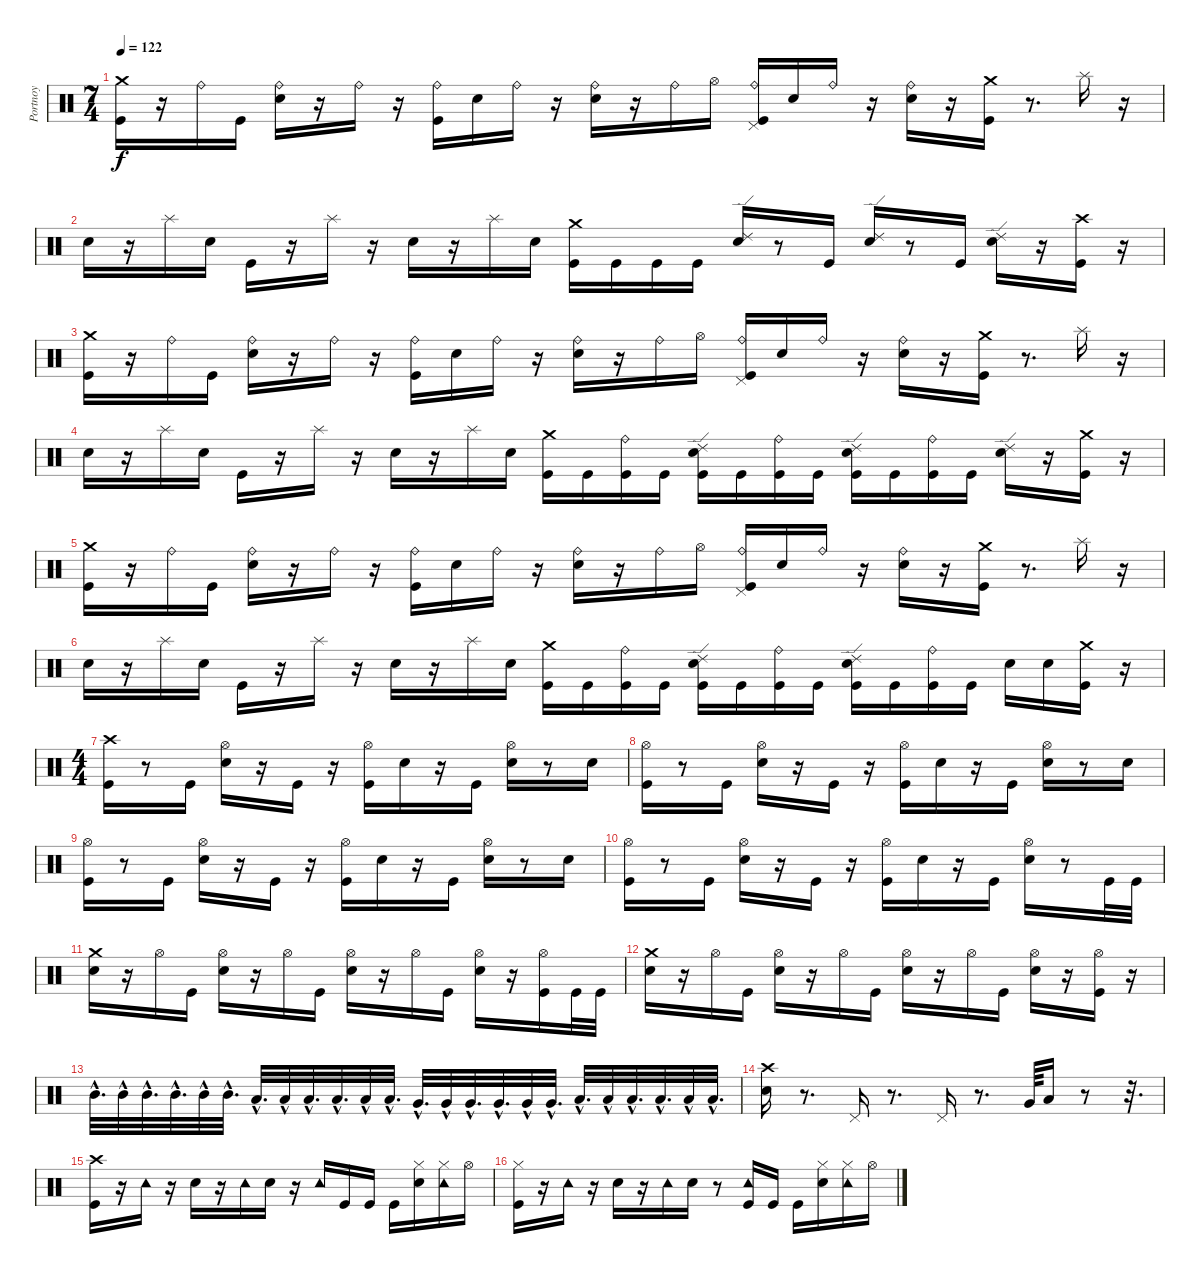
\track ("Portnoy" "Portnoy") {instrument percussion}
\staff {score}
\articulation defaults
\ts (7 4)
\tempo 122
\clef neutral
\ks c
("Crash medium (hit)" "Kick (hit)").16{dy f} r.16 "Ride (bell)".16 "Kick (hit)".16 ("Metronome (bell)" "Ride (bell)").16 r.16 "Ride (bell)".16 r.16 ("Kick (hit)" "Ride (bell)").16 "Metronome (bell)".16 "Ride (bell)".16 r.16 ("Metronome (bell)" "Ride (bell)").16 r.16 "Ride (bell)".16 "Hi-Hat (open)".16 ("Pedal Hi-Hat (hit)" "Kick (hit)" "Ride (bell)").16 "Metronome (bell)".16 "Ride (bell)".16 r.16 ("Metronome (bell)" "Ride (bell)").16 r.16 ("Crash medium (hit)" "Kick (hit)").16 r.8{d} "Splash (hit)".16 r.16 |
"Metronome (bell)".16 r.16 "Splash (hit)".16 "Metronome (bell)".16 "Kick (hit)".16 r.16 "Splash (hit)".16 r.16 "Metronome (bell)".16 r.16 "Splash (hit)".16 "Metronome (bell)".16 ("Crash medium (hit)" "Kick (hit)").16 "Kick (hit)".16 "Kick (hit)".16 "Kick (hit)".16 ("Metronome (bell)" "Ride (edge) 2").16 r.8 "Kick (hit)".16 ("Metronome (bell)" "Ride (edge) 2").16 r.8 "Kick (hit)".16 ("Metronome (bell)" "Ride (edge) 2").16 r.16 ("Crash high (hit)" "Kick (hit)").16 r.16 |
("Crash medium (hit)" "Kick (hit)").16 r.16 "Ride (bell)".16 "Kick (hit)".16 ("Metronome (bell)" "Ride (bell)").16 r.16 "Ride (bell)".16 r.16 ("Kick (hit)" "Ride (bell)").16 "Metronome (bell)".16 "Ride (bell)".16 r.16 ("Metronome (bell)" "Ride (bell)").16 r.16 "Ride (bell)".16 "Hi-Hat (open)".16 ("Pedal Hi-Hat (hit)" "Kick (hit)" "Ride (bell)").16 "Metronome (bell)".16 "Ride (bell)".16 r.16 ("Metronome (bell)" "Ride (bell)").16 r.16 ("Crash medium (hit)" "Kick (hit)").16 r.8{d} "Splash (hit)".16 r.16 |
"Metronome (bell)".16 r.16 "Splash (hit)".16 "Metronome (bell)".16 "Kick (hit)".16 r.16 "Splash (hit)".16 r.16 "Metronome (bell)".16 r.16 "Splash (hit)".16 "Metronome (bell)".16 ("Crash medium (hit)" "Kick (hit)").16 "Kick (hit)".16 ("Ride (bell)" "Kick (hit)").16 "Kick (hit)".16 ("Kick (hit)" "Metronome (bell)" "Ride (edge) 2").16 "Kick (hit)".16 ("Kick (hit)" "Ride (bell)").16 "Kick (hit)".16 ("Kick (hit)" "Metronome (bell)" "Ride (edge) 2").16 "Kick (hit)".16 ("Kick (hit)" "Ride (bell)").16 "Kick (hit)".16 ("Metronome (bell)" "Ride (edge) 2").16 r.16 ("Crash medium (hit)" "Kick (hit)").16 r.16 |
("Crash medium (hit)" "Kick (hit)").16 r.16 "Ride (bell)".16 "Kick (hit)".16 ("Metronome (bell)" "Ride (bell)").16 r.16 "Ride (bell)".16 r.16 ("Kick (hit)" "Ride (bell)").16 "Metronome (bell)".16 "Ride (bell)".16 r.16 ("Metronome (bell)" "Ride (bell)").16 r.16 "Ride (bell)".16 "Hi-Hat (open)".16 ("Pedal Hi-Hat (hit)" "Kick (hit)" "Ride (bell)").16 "Metronome (bell)".16 "Ride (bell)".16 r.16 ("Metronome (bell)" "Ride (bell)").16 r.16 ("Crash medium (hit)" "Kick (hit)").16 r.8{d} "Splash (hit)".16 r.16 |
"Metronome (bell)".16 r.16 "Splash (hit)".16 "Metronome (bell)".16 "Kick (hit)".16 r.16 "Splash (hit)".16 r.16 "Metronome (bell)".16 r.16 "Splash (hit)".16 "Metronome (bell)".16 ("Crash medium (hit)" "Kick (hit)").16 "Kick (hit)".16 ("Ride (bell)" "Kick (hit)").16 "Kick (hit)".16 ("Kick (hit)" "Metronome (bell)" "Ride (edge) 2").16 "Kick (hit)".16 ("Kick (hit)" "Ride (bell)").16 "Kick (hit)".16 ("Kick (hit)" "Metronome (bell)" "Ride (edge) 2").16 "Kick (hit)".16 ("Kick (hit)" "Ride (bell)").16 "Kick (hit)".16 "Metronome (bell)".16 "Metronome (bell)".16 ("Crash medium (hit)" "Kick (hit)").16 r.16 |
\ts (4 4)
("Crash high (hit)" "Kick (hit)").16 r.8 "Kick (hit)".16 ("Hi-Hat (open)" "Metronome (bell)").16 r.16 "Kick (hit)".16 r.16 ("Kick (hit)" "Hi-Hat (open)").16 "Metronome (bell)".16 r.16 "Kick (hit)".16 ("Metronome (bell)" "Hi-Hat (open)").16 r.8 "Metronome (bell)".16 |
("Hi-Hat (open)" "Kick (hit)").16 r.8 "Kick (hit)".16 ("Hi-Hat (open)" "Metronome (bell)").16 r.16 "Kick (hit)".16 r.16 ("Kick (hit)" "Hi-Hat (open)").16 "Metronome (bell)".16 r.16 "Kick (hit)".16 ("Metronome (bell)" "Hi-Hat (open)").16 r.8 "Metronome (bell)".16 |
("Hi-Hat (open)" "Kick (hit)").16 r.8 "Kick (hit)".16 ("Hi-Hat (open)" "Metronome (bell)").16 r.16 "Kick (hit)".16 r.16 ("Kick (hit)" "Hi-Hat (open)").16 "Metronome (bell)".16 r.16 "Kick (hit)".16 ("Metronome (bell)" "Hi-Hat (open)").16 r.8 "Metronome (bell)".16 |
("Hi-Hat (open)" "Kick (hit)").16 r.8 "Kick (hit)".16 ("Hi-Hat (open)" "Metronome (bell)").16 r.16 "Kick (hit)".16 r.16 ("Kick (hit)" "Hi-Hat (open)").16 "Metronome (bell)".16 r.16 "Kick (hit)".16 ("Metronome (bell)" "Hi-Hat (open)").16 r.8 "Kick (hit)".32 "Kick (hit)".32 |
("Crash medium (hit)" "Metronome (bell)").16 r.16 "Hi-Hat (open)".16 "Kick (hit)".16 ("Hi-Hat (open)" "Metronome (bell)").16 r.16 "Hi-Hat (open)".16 "Kick (hit)".16 ("Hi-Hat (open)" "Metronome (bell)").16 r.16 "Hi-Hat (open)".16 "Kick (hit)".16 ("Metronome (bell)" "Hi-Hat (open)").16 r.16 ("Kick (hit)" "Hi-Hat (open)").16 "Kick (hit)".32 "Kick (hit)".32 |
("Crash medium (hit)" "Metronome (bell)").16 r.16 "Hi-Hat (open)".16 "Kick (hit)".16 ("Hi-Hat (open)" "Metronome (bell)").16 r.16 "Hi-Hat (open)".16 "Kick (hit)".16 ("Hi-Hat (open)" "Metronome (bell)").16 r.16 "Hi-Hat (open)".16 "Kick (hit)".16 ("Metronome (bell)" "Hi-Hat (open)").16 r.16 ("Kick (hit)" "Hi-Hat (open)").16 r.16 |
"Mid Tom (hit)"{hac}.32{d} "Mid Tom (hit)"{hac}.32 "Mid Tom (hit)"{hac}.32{d} "Mid Tom (hit)"{hac}.32{d} "Mid Tom (hit)"{hac}.32 "Mid Tom (hit)"{hac}.32{d} "Low Tom (hit)"{hac}.32{d} "Low Tom (hit)"{hac}.32 "Low Tom (hit)"{hac}.32{d} "Low Tom (hit)"{hac}.32{d} "Low Tom (hit)"{hac}.32 "Low Tom (hit)"{hac}.32{d} "Very Low Tom (hit)"{hac}.32{d} "Very Low Tom (hit)"{hac}.32 "Very Low Tom (hit)"{hac}.32{d} "Very Low Tom (hit)"{hac}.32{d} "Very Low Tom (hit)"{hac}.32 "Very Low Tom (hit)"{hac}.32{d} "Low Floor Tom (hit)"{hac}.32{d} "Low Floor Tom (hit)"{hac}.32 "Low Floor Tom (hit)"{hac}.32{d} "Low Floor Tom (hit)"{hac}.32{d} "Low Floor Tom (hit)"{hac}.32 "Low Floor Tom (hit)"{hac}.32{d} |
("Crash high (hit)" "Metronome (bell)").16 r.8{d} "Pedal Hi-Hat (hit)".16 r.8{d} "Pedal Hi-Hat (hit)".16 r.8{d} "Very Low Tom (hit)".64 "Low Floor Tom (hit)".16 r.8 r.32{d} |
("Crash high (hit)" "Kick (hit)").16 r.16 "Tambourine (hit)".16 r.16 "Metronome (bell)".16 r.16 "Tambourine (hit)".16 "Metronome (bell)".16 r.16 "Tambourine (hit)".16 "Kick (hit)".16 "Kick (hit)".16 "Kick (hit)".16 ("Hi-Hat (closed)" "Metronome (bell)").16 ("Tambourine (hit)" "Hi-Hat (closed)").16 "Hi-Hat (open)".16 |
("Hi-Hat (closed)" "Kick (hit)").16 r.16 "Tambourine (hit)".16 r.16 "Metronome (bell)".16 r.16 "Tambourine (hit)".16 "Metronome (bell)".16 r.8 ("Tambourine (hit)" "Kick (hit)").16 "Kick (hit)".16 "Kick (hit)".16 ("Hi-Hat (closed)" "Metronome (bell)").16 ("Tambourine (hit)" "Hi-Hat (closed)").16 "Hi-Hat (open)".16
